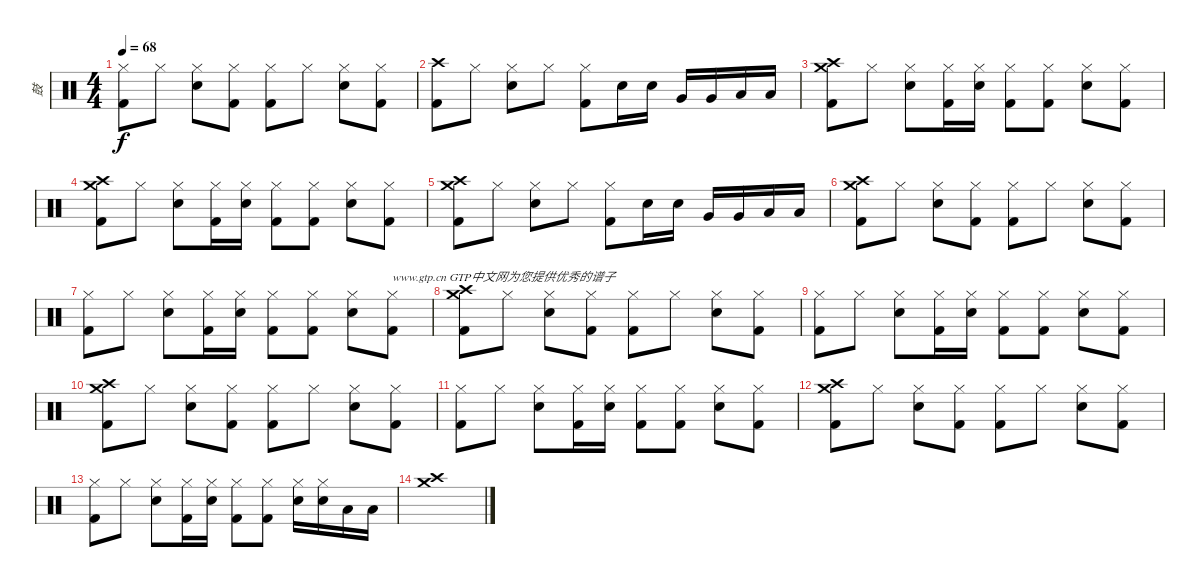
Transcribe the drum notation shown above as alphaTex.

\track ("鼓" "鼓") {instrument percussion}
\staff {score}
\articulation defaults
\ts (4 4)
\tempo 68
\clef neutral
\ks c
("Kick (hit) 2" "Hi-Hat (closed)").8{dy f} "Hi-Hat (closed)".8 ("Snare (hit) 2" "Hi-Hat (closed)").8 ("Kick (hit) 2" "Hi-Hat (closed)").8 ("Kick (hit) 2" "Hi-Hat (closed)").8 "Hi-Hat (closed)".8 ("Snare (hit) 2" "Hi-Hat (closed)").8 ("Kick (hit) 2" "Hi-Hat (closed)").8 |
("Kick (hit) 2" "Crash high (hit)").8 "Hi-Hat (closed)".8 ("Snare (hit) 2" "Hi-Hat (closed)").8 "Hi-Hat (closed)".8 ("Kick (hit) 2" "Hi-Hat (closed)").8 "Electric Snare (hit)".16 "Electric Snare (hit)".16 "Very Low Tom (hit)".16 "Very Low Tom (hit)".16 "Low Tom (hit)".16 "Low Tom (hit)".16 |
("Kick (hit) 2" "Crash high (hit)" "Crash medium (hit)").8 "Hi-Hat (closed)".8 ("Snare (hit) 2" "Hi-Hat (closed)").8 ("Kick (hit) 2" "Hi-Hat (closed)").16 ("Snare (hit) 2" "Hi-Hat (closed)").16 ("Kick (hit) 2" "Hi-Hat (closed)").8 ("Kick (hit) 2" "Hi-Hat (closed)").8 ("Snare (hit) 2" "Hi-Hat (closed)").8 ("Kick (hit) 2" "Hi-Hat (closed)").8 |
("Kick (hit) 2" "Crash high (hit)" "Crash medium (hit)").8 "Hi-Hat (closed)".8 ("Snare (hit) 2" "Hi-Hat (closed)").8 ("Kick (hit) 2" "Hi-Hat (closed)").16 ("Snare (hit) 2" "Hi-Hat (closed)").16 ("Kick (hit) 2" "Hi-Hat (closed)").8 ("Kick (hit) 2" "Hi-Hat (closed)").8 ("Snare (hit) 2" "Hi-Hat (closed)").8 ("Kick (hit) 2" "Hi-Hat (closed)").8 |
("Kick (hit) 2" "Crash medium (hit)" "Crash high (hit)").8 "Hi-Hat (closed)".8 ("Snare (hit) 2" "Hi-Hat (closed)").8 "Hi-Hat (closed)".8 ("Kick (hit) 2" "Hi-Hat (closed)").8 "Electric Snare (hit)".16 "Electric Snare (hit)".16 "Very Low Tom (hit)".16 "Very Low Tom (hit)".16 "Low Tom (hit)".16 "Low Tom (hit)".16 |
("Kick (hit) 2" "Crash high (hit)" "Crash medium (hit)").8 "Hi-Hat (closed)".8 ("Snare (hit) 2" "Hi-Hat (closed)").8 ("Kick (hit) 2" "Hi-Hat (closed)").8 ("Kick (hit) 2" "Hi-Hat (closed)").8 "Hi-Hat (closed)".8 ("Snare (hit) 2" "Hi-Hat (closed)").8 ("Kick (hit) 2" "Hi-Hat (closed)").8 |
("Kick (hit) 2" "Hi-Hat (closed)").8 "Hi-Hat (closed)".8 ("Snare (hit) 2" "Hi-Hat (closed)").8 ("Kick (hit) 2" "Hi-Hat (closed)").16 ("Snare (hit) 2" "Hi-Hat (closed)").16 ("Kick (hit) 2" "Hi-Hat (closed)").8 ("Kick (hit) 2" "Hi-Hat (closed)").8 ("Snare (hit) 2" "Hi-Hat (closed)").8 ("Kick (hit) 2" "Hi-Hat (closed)").8{txt "www.gtp.cn GTP中文网为您提供优秀的谱子"} |
("Kick (hit) 2" "Crash high (hit)" "Crash medium (hit)").8 "Hi-Hat (closed)".8 ("Snare (hit) 2" "Hi-Hat (closed)").8 ("Kick (hit) 2" "Hi-Hat (closed)").8 ("Kick (hit) 2" "Hi-Hat (closed)").8 "Hi-Hat (closed)".8 ("Snare (hit) 2" "Hi-Hat (closed)").8 ("Kick (hit) 2" "Hi-Hat (closed)").8 |
("Kick (hit) 2" "Hi-Hat (closed)").8 "Hi-Hat (closed)".8 ("Snare (hit) 2" "Hi-Hat (closed)").8 ("Kick (hit) 2" "Hi-Hat (closed)").16 ("Snare (hit) 2" "Hi-Hat (closed)").16 ("Kick (hit) 2" "Hi-Hat (closed)").8 ("Kick (hit) 2" "Hi-Hat (closed)").8 ("Snare (hit) 2" "Hi-Hat (closed)").8 ("Kick (hit) 2" "Hi-Hat (closed)").8 |
("Kick (hit) 2" "Crash high (hit)" "Crash medium (hit)").8 "Hi-Hat (closed)".8 ("Snare (hit) 2" "Hi-Hat (closed)").8 ("Kick (hit) 2" "Hi-Hat (closed)").8 ("Kick (hit) 2" "Hi-Hat (closed)").8 "Hi-Hat (closed)".8 ("Snare (hit) 2" "Hi-Hat (closed)").8 ("Kick (hit) 2" "Hi-Hat (closed)").8 |
("Kick (hit) 2" "Hi-Hat (closed)").8 "Hi-Hat (closed)".8 ("Snare (hit) 2" "Hi-Hat (closed)").8 ("Kick (hit) 2" "Hi-Hat (closed)").16 ("Snare (hit) 2" "Hi-Hat (closed)").16 ("Kick (hit) 2" "Hi-Hat (closed)").8 ("Kick (hit) 2" "Hi-Hat (closed)").8 ("Snare (hit) 2" "Hi-Hat (closed)").8 ("Kick (hit) 2" "Hi-Hat (closed)").8 |
("Kick (hit) 2" "Crash high (hit)" "Crash medium (hit)").8 "Hi-Hat (closed)".8 ("Snare (hit) 2" "Hi-Hat (closed)").8 ("Kick (hit) 2" "Hi-Hat (closed)").8 ("Kick (hit) 2" "Hi-Hat (closed)").8 "Hi-Hat (closed)".8 ("Snare (hit) 2" "Hi-Hat (closed)").8 ("Kick (hit) 2" "Hi-Hat (closed)").8 |
("Kick (hit) 2" "Hi-Hat (closed)").8 "Hi-Hat (closed)".8 ("Snare (hit) 2" "Hi-Hat (closed)").8 ("Kick (hit) 2" "Hi-Hat (closed)").16 ("Snare (hit) 2" "Hi-Hat (closed)").16 ("Kick (hit) 2" "Hi-Hat (closed)").8 ("Kick (hit) 2" "Hi-Hat (closed)").8 ("Electric Snare (hit)" "Hi-Hat (closed)").16 ("Electric Snare (hit)" "Hi-Hat (closed)").16 "Low Tom (hit)".16 "Low Tom (hit)".16 |
("Crash high (hit)" "Crash medium (hit)").1
